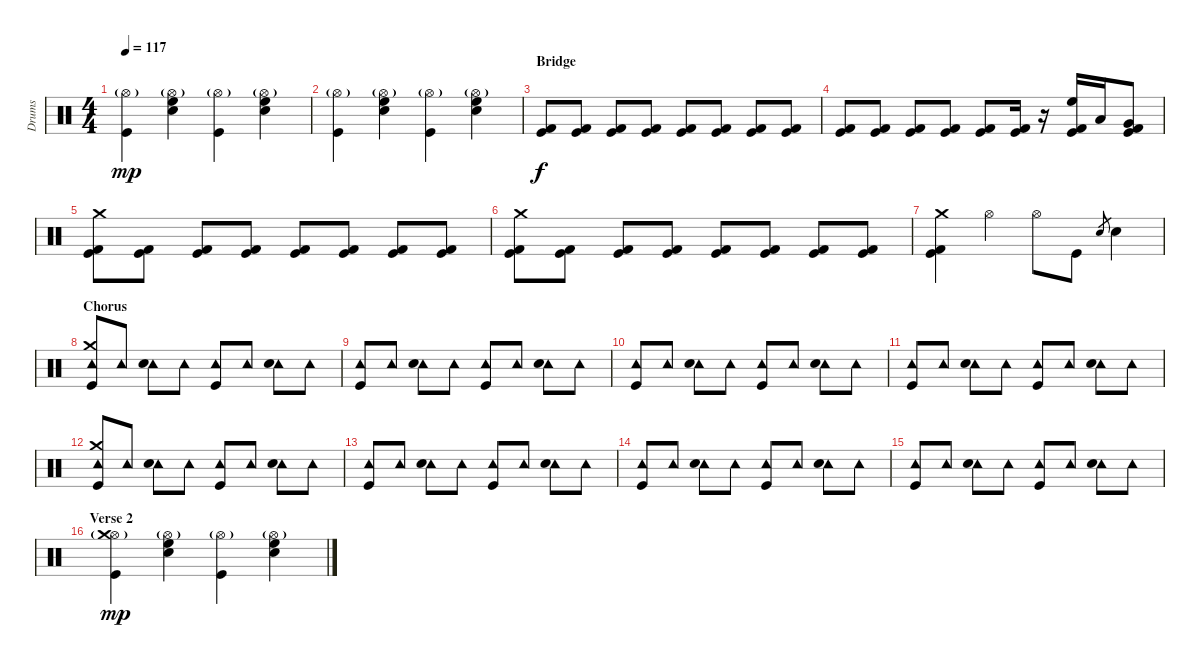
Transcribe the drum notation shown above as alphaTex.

\track ("Drums" "Drums") {instrument percussion}
\staff {score}
\articulation defaults
\ts (4 4)
\tempo 117
\clef neutral
\ks c
("Hi-Hat (open)"{g} "Kick (hit)").4{dy mp} ("Hi-Hat (open)"{g} "High Floor Tom (hit)" "Electric Snare (hit)").4 ("Hi-Hat (open)"{g} "Kick (hit)").4 ("Hi-Hat (open)"{g} "High Floor Tom (hit)" "Electric Snare (hit)").4 |
("Hi-Hat (open)"{g} "Kick (hit)").4 ("Hi-Hat (open)"{g} "High Floor Tom (hit)" "Electric Snare (hit)").4 ("Hi-Hat (open)"{g} "Kick (hit)").4 ("Hi-Hat (open)"{g} "High Floor Tom (hit)" "Electric Snare (hit)").4 |
\section ("" "Bridge")
("Kick (hit) 2" "Kick (hit)").8{dy f} ("Kick (hit) 2" "Kick (hit)").8 ("Kick (hit) 2" "Kick (hit)").8 ("Kick (hit) 2" "Kick (hit)").8 ("Kick (hit) 2" "Kick (hit)").8 ("Kick (hit) 2" "Kick (hit)").8 ("Kick (hit) 2" "Kick (hit)").8 ("Kick (hit) 2" "Kick (hit)").8 |
("Kick (hit) 2" "Kick (hit)").8 ("Kick (hit) 2" "Kick (hit)").8 ("Kick (hit) 2" "Kick (hit)").8 ("Kick (hit) 2" "Kick (hit)").8 ("Kick (hit) 2" "Kick (hit)").8 ("Kick (hit) 2" "Kick (hit)").16 r.16 ("High Floor Tom (hit)" "Kick (hit) 2" "Kick (hit)").16 "Low Tom (hit)".16 ("Very Low Tom (hit)" "Kick (hit) 2" "Kick (hit)").8 |
("Crash medium (hit)" "Kick (hit) 2" "Kick (hit)").8 ("Kick (hit) 2" "Kick (hit)").8 ("Kick (hit) 2" "Kick (hit)").8 ("Kick (hit) 2" "Kick (hit)").8 ("Kick (hit) 2" "Kick (hit)").8 ("Kick (hit) 2" "Kick (hit)").8 ("Kick (hit) 2" "Kick (hit)").8 ("Kick (hit) 2" "Kick (hit)").8 |
("Crash medium (hit)" "Kick (hit) 2" "Kick (hit)").8 ("Kick (hit) 2" "Kick (hit)").8 ("Kick (hit) 2" "Kick (hit)").8 ("Kick (hit) 2" "Kick (hit)").8 ("Kick (hit) 2" "Kick (hit)").8 ("Kick (hit) 2" "Kick (hit)").8 ("Kick (hit) 2" "Kick (hit)").8 ("Kick (hit) 2" "Kick (hit)").8 |
("Crash medium (hit)" "Kick (hit) 2" "Kick (hit)").4 "Hi-Hat (open)".4 "Hi-Hat (open)".8 "Kick (hit)".8 "Electric Snare (hit)".8{gr} "Electric Snare (hit)".4 |
\section ("" "Chorus")
("Crash medium (hit)" "Tambourine (hit)" "Kick (hit)").8 "Tambourine (hit)".8 ("Tambourine (hit)" "Electric Snare (hit)").8 "Tambourine (hit)".8 ("Tambourine (hit)" "Kick (hit)").8 "Tambourine (hit)".8 ("Tambourine (hit)" "Electric Snare (hit)").8 "Tambourine (hit)".8 |
("Tambourine (hit)" "Kick (hit)").8 "Tambourine (hit)".8 ("Tambourine (hit)" "Electric Snare (hit)").8 "Tambourine (hit)".8 ("Tambourine (hit)" "Kick (hit)").8 "Tambourine (hit)".8 ("Tambourine (hit)" "Electric Snare (hit)").8 "Tambourine (hit)".8 |
("Tambourine (hit)" "Kick (hit)").8 "Tambourine (hit)".8 ("Tambourine (hit)" "Electric Snare (hit)").8 "Tambourine (hit)".8 ("Tambourine (hit)" "Kick (hit)").8 "Tambourine (hit)".8 ("Tambourine (hit)" "Electric Snare (hit)").8 "Tambourine (hit)".8 |
("Tambourine (hit)" "Kick (hit)").8 "Tambourine (hit)".8 ("Tambourine (hit)" "Electric Snare (hit)").8 "Tambourine (hit)".8 ("Tambourine (hit)" "Kick (hit)").8 "Tambourine (hit)".8 ("Tambourine (hit)" "Electric Snare (hit)").8 "Tambourine (hit)".8 |
("Crash medium (hit)" "Tambourine (hit)" "Kick (hit)").8 "Tambourine (hit)".8 ("Tambourine (hit)" "Electric Snare (hit)").8 "Tambourine (hit)".8 ("Tambourine (hit)" "Kick (hit)").8 "Tambourine (hit)".8 ("Tambourine (hit)" "Electric Snare (hit)").8 "Tambourine (hit)".8 |
("Tambourine (hit)" "Kick (hit)").8 "Tambourine (hit)".8 ("Tambourine (hit)" "Electric Snare (hit)").8 "Tambourine (hit)".8 ("Tambourine (hit)" "Kick (hit)").8 "Tambourine (hit)".8 ("Tambourine (hit)" "Electric Snare (hit)").8 "Tambourine (hit)".8 |
("Tambourine (hit)" "Kick (hit)").8 "Tambourine (hit)".8 ("Tambourine (hit)" "Electric Snare (hit)").8 "Tambourine (hit)".8 ("Tambourine (hit)" "Kick (hit)").8 "Tambourine (hit)".8 ("Tambourine (hit)" "Electric Snare (hit)").8 "Tambourine (hit)".8 |
("Tambourine (hit)" "Kick (hit)").8 "Tambourine (hit)".8 ("Tambourine (hit)" "Electric Snare (hit)").8 "Tambourine (hit)".8 ("Tambourine (hit)" "Kick (hit)").8 "Tambourine (hit)".8 ("Tambourine (hit)" "Electric Snare (hit)").8 "Tambourine (hit)".8 |
\section ("" "Verse 2")
("Hi-Hat (open)"{g} "Crash medium (hit)" "Kick (hit)").4{dy mp} ("Hi-Hat (open)"{g} "High Floor Tom (hit)" "Electric Snare (hit)").4 ("Hi-Hat (open)"{g} "Kick (hit)").4 ("Hi-Hat (open)"{g} "High Floor Tom (hit)" "Electric Snare (hit)").4
